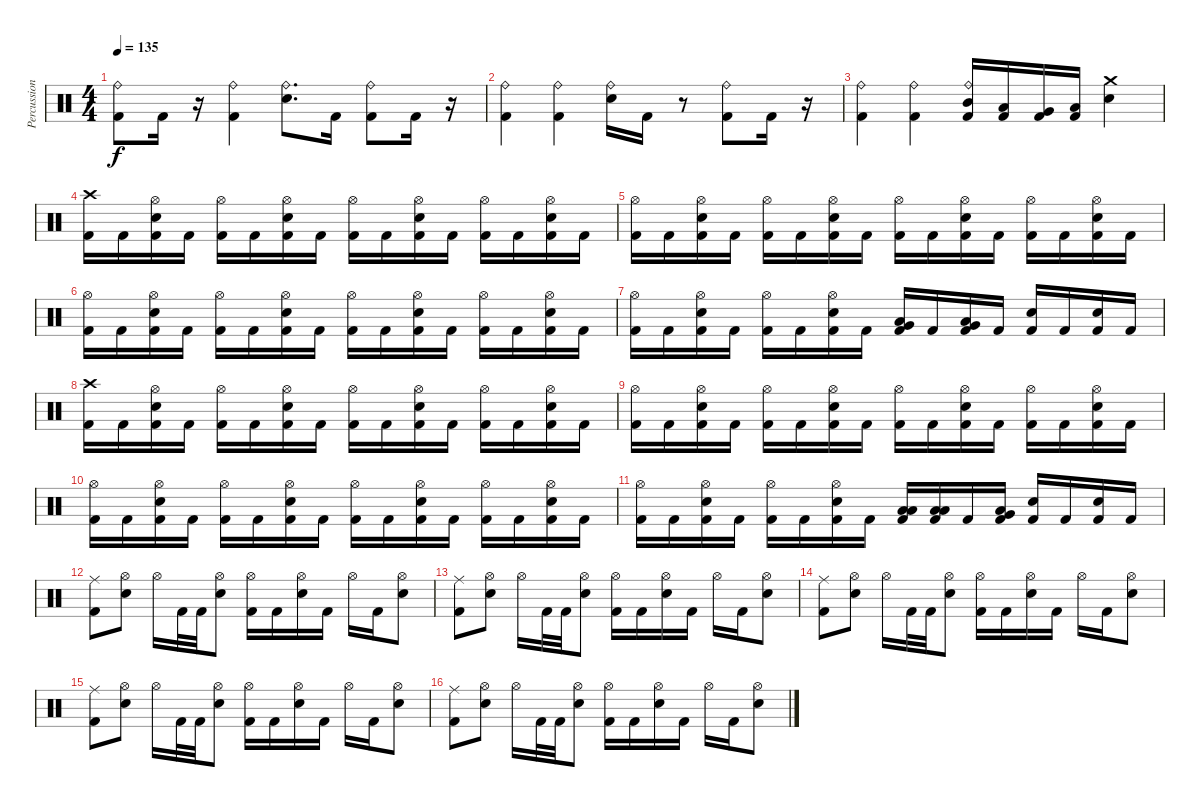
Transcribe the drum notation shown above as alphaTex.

\track ("Percussion" "Percussion") {instrument percussion}
\staff {score}
\articulation defaults
\ts (4 4)
\tempo 135
\clef neutral
\ks c
("Kick (hit) 2" "Ride (bell)").8{dy f} "Kick (hit) 2".16 r.16 ("Kick (hit) 2" "Ride (bell)").4 ("Electric Snare (hit)" "Ride (bell)").8{d} "Kick (hit) 2".16 ("Kick (hit) 2" "Ride (bell)").8 "Kick (hit) 2".16 r.16 |
("Kick (hit) 2" "Ride (bell)").4 ("Kick (hit) 2" "Ride (bell)").4 ("Electric Snare (hit)" "Ride (bell)").16 "Kick (hit) 2".16 r.8 ("Kick (hit) 2" "Ride (bell)").8 "Kick (hit) 2".16 r.16 |
("Kick (hit) 2" "Ride (bell)").4 ("Kick (hit) 2" "Ride (bell)").4 ("Kick (hit) 2" "Mid Tom (hit)" "Ride (bell)").16 ("Kick (hit) 2" "Low Tom (hit)").16 ("Kick (hit) 2" "Very Low Tom (hit)").16 ("Kick (hit) 2" "Low Floor Tom (hit)").16 ("Electric Snare (hit)" "Crash medium (hit)").4 |
("Kick (hit) 2" "Crash high (hit)").16 "Kick (hit) 2".16 ("Kick (hit) 2" "Electric Snare (hit)" "Hi-Hat (open)").16 "Kick (hit) 2".16 ("Kick (hit) 2" "Hi-Hat (open)").16 "Kick (hit) 2".16 ("Kick (hit) 2" "Electric Snare (hit)" "Hi-Hat (open)").16 "Kick (hit) 2".16 ("Kick (hit) 2" "Hi-Hat (open)").16 "Kick (hit) 2".16 ("Kick (hit) 2" "Electric Snare (hit)" "Hi-Hat (open)").16 "Kick (hit) 2".16 ("Kick (hit) 2" "Hi-Hat (open)").16 "Kick (hit) 2".16 ("Kick (hit) 2" "Electric Snare (hit)" "Hi-Hat (open)").16 "Kick (hit) 2".16 |
("Kick (hit) 2" "Hi-Hat (open)").16 "Kick (hit) 2".16 ("Kick (hit) 2" "Electric Snare (hit)" "Hi-Hat (open)").16 "Kick (hit) 2".16 ("Kick (hit) 2" "Hi-Hat (open)").16 "Kick (hit) 2".16 ("Kick (hit) 2" "Electric Snare (hit)" "Hi-Hat (open)").16 "Kick (hit) 2".16 ("Kick (hit) 2" "Hi-Hat (open)").16 "Kick (hit) 2".16 ("Kick (hit) 2" "Electric Snare (hit)" "Hi-Hat (open)").16 "Kick (hit) 2".16 ("Kick (hit) 2" "Hi-Hat (open)").16 "Kick (hit) 2".16 ("Kick (hit) 2" "Electric Snare (hit)" "Hi-Hat (open)").16 "Kick (hit) 2".16 |
("Kick (hit) 2" "Hi-Hat (open)").16 "Kick (hit) 2".16 ("Kick (hit) 2" "Electric Snare (hit)" "Hi-Hat (open)").16 "Kick (hit) 2".16 ("Kick (hit) 2" "Hi-Hat (open)").16 "Kick (hit) 2".16 ("Kick (hit) 2" "Electric Snare (hit)" "Hi-Hat (open)").16 "Kick (hit) 2".16 ("Kick (hit) 2" "Hi-Hat (open)").16 "Kick (hit) 2".16 ("Kick (hit) 2" "Electric Snare (hit)" "Hi-Hat (open)").16 "Kick (hit) 2".16 ("Kick (hit) 2" "Hi-Hat (open)").16 "Kick (hit) 2".16 ("Kick (hit) 2" "Electric Snare (hit)" "Hi-Hat (open)").16 "Kick (hit) 2".16 |
("Kick (hit) 2" "Hi-Hat (open)").16 "Kick (hit) 2".16 ("Kick (hit) 2" "Electric Snare (hit)" "Hi-Hat (open)").16 "Kick (hit) 2".16 ("Kick (hit) 2" "Hi-Hat (open)").16 "Kick (hit) 2".16 ("Kick (hit) 2" "Electric Snare (hit)" "Hi-Hat (open)").16 "Kick (hit) 2".16 ("Kick (hit) 2" "Very Low Tom (hit)" "Low Tom (hit)").16 "Kick (hit) 2".16 ("Kick (hit) 2" "Low Floor Tom (hit)" "Very Low Tom (hit)").16 "Kick (hit) 2".16 ("Kick (hit) 2" "Electric Snare (hit)").16 "Kick (hit) 2".16 ("Kick (hit) 2" "Electric Snare (hit)").16 "Kick (hit) 2".16 |
("Kick (hit) 2" "Crash high (hit)").16 "Kick (hit) 2".16 ("Kick (hit) 2" "Electric Snare (hit)" "Hi-Hat (open)").16 "Kick (hit) 2".16 ("Kick (hit) 2" "Hi-Hat (open)").16 "Kick (hit) 2".16 ("Kick (hit) 2" "Electric Snare (hit)" "Hi-Hat (open)").16 "Kick (hit) 2".16 ("Kick (hit) 2" "Hi-Hat (open)").16 "Kick (hit) 2".16 ("Kick (hit) 2" "Electric Snare (hit)" "Hi-Hat (open)").16 "Kick (hit) 2".16 ("Kick (hit) 2" "Hi-Hat (open)").16 "Kick (hit) 2".16 ("Kick (hit) 2" "Electric Snare (hit)" "Hi-Hat (open)").16 "Kick (hit) 2".16 |
("Kick (hit) 2" "Hi-Hat (open)").16 "Kick (hit) 2".16 ("Kick (hit) 2" "Electric Snare (hit)" "Hi-Hat (open)").16 "Kick (hit) 2".16 ("Kick (hit) 2" "Hi-Hat (open)").16 "Kick (hit) 2".16 ("Kick (hit) 2" "Electric Snare (hit)" "Hi-Hat (open)").16 "Kick (hit) 2".16 ("Kick (hit) 2" "Hi-Hat (open)").16 "Kick (hit) 2".16 ("Kick (hit) 2" "Electric Snare (hit)" "Hi-Hat (open)").16 "Kick (hit) 2".16 ("Kick (hit) 2" "Hi-Hat (open)").16 "Kick (hit) 2".16 ("Kick (hit) 2" "Electric Snare (hit)" "Hi-Hat (open)").16 "Kick (hit) 2".16 |
("Kick (hit) 2" "Hi-Hat (open)").16 "Kick (hit) 2".16 ("Kick (hit) 2" "Electric Snare (hit)" "Hi-Hat (open)").16 "Kick (hit) 2".16 ("Kick (hit) 2" "Hi-Hat (open)").16 "Kick (hit) 2".16 ("Kick (hit) 2" "Electric Snare (hit)" "Hi-Hat (open)").16 "Kick (hit) 2".16 ("Kick (hit) 2" "Hi-Hat (open)").16 "Kick (hit) 2".16 ("Kick (hit) 2" "Electric Snare (hit)" "Hi-Hat (open)").16 "Kick (hit) 2".16 ("Kick (hit) 2" "Hi-Hat (open)").16 "Kick (hit) 2".16 ("Kick (hit) 2" "Electric Snare (hit)" "Hi-Hat (open)").16 "Kick (hit) 2".16 |
("Kick (hit) 2" "Hi-Hat (open)").16 "Kick (hit) 2".16 ("Kick (hit) 2" "Electric Snare (hit)" "Hi-Hat (open)").16 "Kick (hit) 2".16 ("Kick (hit) 2" "Hi-Hat (open)").16 "Kick (hit) 2".16 ("Kick (hit) 2" "Electric Snare (hit)" "Hi-Hat (open)").16 "Kick (hit) 2".16 ("Kick (hit) 2" "Low Floor Tom (hit)" "Low Tom (hit)").16 ("Kick (hit) 2" "Low Floor Tom (hit)" "Low Tom (hit)").16 "Kick (hit) 2".16 ("Kick (hit) 2" "Low Floor Tom (hit)" "Very Low Tom (hit)").16 ("Kick (hit) 2" "Electric Snare (hit)").16 "Kick (hit) 2".16 ("Kick (hit) 2" "Electric Snare (hit)").16 "Kick (hit) 2".16 |
("Kick (hit) 2" "Ride (middle)").8 ("Electric Snare (hit)" "Hi-Hat (open)").8 "Hi-Hat (open)".16 "Kick (hit) 2".32 "Kick (hit) 2".32 ("Electric Snare (hit)" "Hi-Hat (open)").8 ("Kick (hit) 2" "Hi-Hat (open)").16 "Kick (hit) 2".16 ("Electric Snare (hit)" "Hi-Hat (open)").16 "Kick (hit) 2".16 "Hi-Hat (open)".16 "Kick (hit) 2".16 ("Electric Snare (hit)" "Hi-Hat (open)").8 |
("Kick (hit) 2" "Ride (middle)").8 ("Electric Snare (hit)" "Hi-Hat (open)").8 "Hi-Hat (open)".16 "Kick (hit) 2".32 "Kick (hit) 2".32 ("Electric Snare (hit)" "Hi-Hat (open)").8 ("Kick (hit) 2" "Hi-Hat (open)").16 "Kick (hit) 2".16 ("Electric Snare (hit)" "Hi-Hat (open)").16 "Kick (hit) 2".16 "Hi-Hat (open)".16 "Kick (hit) 2".16 ("Electric Snare (hit)" "Hi-Hat (open)").8 |
("Kick (hit) 2" "Ride (middle)").8 ("Electric Snare (hit)" "Hi-Hat (open)").8 "Hi-Hat (open)".16 "Kick (hit) 2".32 "Kick (hit) 2".32 ("Electric Snare (hit)" "Hi-Hat (open)").8 ("Kick (hit) 2" "Hi-Hat (open)").16 "Kick (hit) 2".16 ("Electric Snare (hit)" "Hi-Hat (open)").16 "Kick (hit) 2".16 "Hi-Hat (open)".16 "Kick (hit) 2".16 ("Electric Snare (hit)" "Hi-Hat (open)").8 |
("Kick (hit) 2" "Ride (middle)").8 ("Electric Snare (hit)" "Hi-Hat (open)").8 "Hi-Hat (open)".16 "Kick (hit) 2".32 "Kick (hit) 2".32 ("Electric Snare (hit)" "Hi-Hat (open)").8 ("Kick (hit) 2" "Hi-Hat (open)").16 "Kick (hit) 2".16 ("Electric Snare (hit)" "Hi-Hat (open)").16 "Kick (hit) 2".16 "Hi-Hat (open)".16 "Kick (hit) 2".16 ("Electric Snare (hit)" "Hi-Hat (open)").8 |
("Kick (hit) 2" "Ride (middle)").8 ("Electric Snare (hit)" "Hi-Hat (open)").8 "Hi-Hat (open)".16 "Kick (hit) 2".32 "Kick (hit) 2".32 ("Electric Snare (hit)" "Hi-Hat (open)").8 ("Kick (hit) 2" "Hi-Hat (open)").16 "Kick (hit) 2".16 ("Electric Snare (hit)" "Hi-Hat (open)").16 "Kick (hit) 2".16 "Hi-Hat (open)".16 "Kick (hit) 2".16 ("Electric Snare (hit)" "Hi-Hat (open)").8
